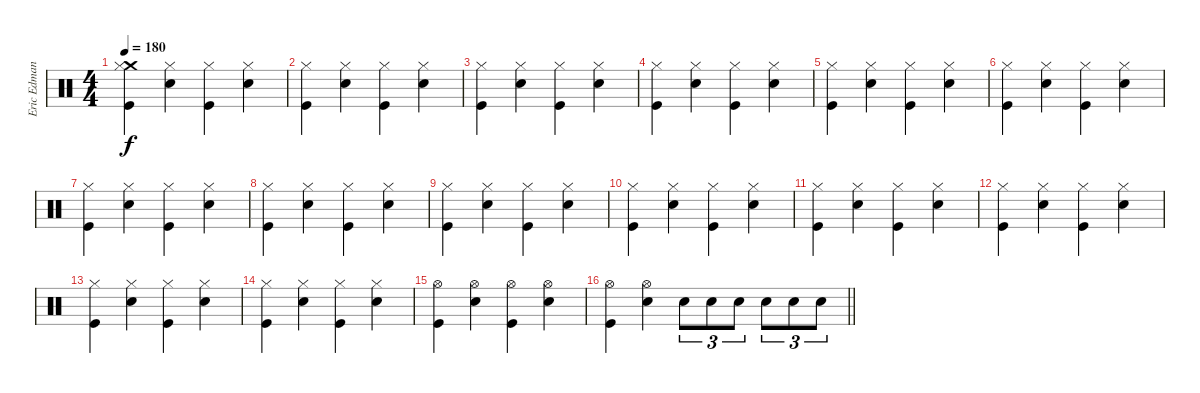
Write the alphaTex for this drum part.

\track ("Eric Edman - Drums" "Eric Edman") {instrument percussion}
\staff {score}
\articulation defaults
\ts (4 4)
\tempo 180
\clef neutral
\ks c
("Crash medium (hit)" "Hi-Hat (closed)" "Kick (hit)").4{dy f} ("Hi-Hat (closed)" "Snare (hit) 2").4 ("Hi-Hat (closed)" "Kick (hit)").4 ("Hi-Hat (closed)" "Snare (hit) 2").4 |
("Hi-Hat (closed)" "Kick (hit)").4 ("Hi-Hat (closed)" "Snare (hit) 2").4 ("Hi-Hat (closed)" "Kick (hit)").4 ("Hi-Hat (closed)" "Snare (hit) 2").4 |
("Hi-Hat (closed)" "Kick (hit)").4 ("Hi-Hat (closed)" "Snare (hit) 2").4 ("Hi-Hat (closed)" "Kick (hit)").4 ("Hi-Hat (closed)" "Snare (hit) 2").4 |
("Hi-Hat (closed)" "Kick (hit)").4 ("Hi-Hat (closed)" "Snare (hit) 2").4 ("Hi-Hat (closed)" "Kick (hit)").4 ("Hi-Hat (closed)" "Snare (hit) 2").4 |
("Hi-Hat (closed)" "Kick (hit)").4 ("Hi-Hat (closed)" "Snare (hit) 2").4 ("Hi-Hat (closed)" "Kick (hit)").4 ("Hi-Hat (closed)" "Snare (hit) 2").4 |
("Hi-Hat (closed)" "Kick (hit)").4 ("Hi-Hat (closed)" "Snare (hit) 2").4 ("Hi-Hat (closed)" "Kick (hit)").4 ("Hi-Hat (closed)" "Snare (hit) 2").4 |
("Hi-Hat (closed)" "Kick (hit)").4 ("Hi-Hat (closed)" "Snare (hit) 2").4 ("Hi-Hat (closed)" "Kick (hit)").4 ("Hi-Hat (closed)" "Snare (hit) 2").4 |
("Hi-Hat (closed)" "Kick (hit)").4 ("Hi-Hat (closed)" "Snare (hit) 2").4 ("Hi-Hat (closed)" "Kick (hit)").4 ("Hi-Hat (closed)" "Snare (hit) 2").4 |
("Hi-Hat (closed)" "Kick (hit)").4 ("Hi-Hat (closed)" "Snare (hit) 2").4 ("Hi-Hat (closed)" "Kick (hit)").4 ("Hi-Hat (closed)" "Snare (hit) 2").4 |
("Hi-Hat (closed)" "Kick (hit)").4 ("Hi-Hat (closed)" "Snare (hit) 2").4 ("Hi-Hat (closed)" "Kick (hit)").4 ("Hi-Hat (closed)" "Snare (hit) 2").4 |
("Hi-Hat (closed)" "Kick (hit)").4 ("Hi-Hat (closed)" "Snare (hit) 2").4 ("Hi-Hat (closed)" "Kick (hit)").4 ("Hi-Hat (closed)" "Snare (hit) 2").4 |
("Hi-Hat (closed)" "Kick (hit)").4 ("Hi-Hat (closed)" "Snare (hit) 2").4 ("Hi-Hat (closed)" "Kick (hit)").4 ("Hi-Hat (closed)" "Snare (hit) 2").4 |
("Hi-Hat (closed)" "Kick (hit)").4 ("Hi-Hat (closed)" "Snare (hit) 2").4 ("Hi-Hat (closed)" "Kick (hit)").4 ("Hi-Hat (closed)" "Snare (hit) 2").4 |
("Hi-Hat (closed)" "Kick (hit)").4 ("Hi-Hat (closed)" "Snare (hit) 2").4 ("Hi-Hat (closed)" "Kick (hit)").4 ("Hi-Hat (closed)" "Snare (hit) 2").4 |
("Hi-Hat (open)" "Kick (hit)").4 ("Hi-Hat (open)" "Snare (hit) 2").4 ("Hi-Hat (open)" "Kick (hit)").4 ("Hi-Hat (open)" "Snare (hit) 2").4 |
\barLineRight lightlight
("Hi-Hat (open)" "Kick (hit)").4 ("Hi-Hat (open)" "Snare (hit) 2").4 "Snare (hit) 2".8{tu (3 2)} "Snare (hit) 2".8{tu (3 2)} "Snare (hit) 2".8{tu (3 2)} "Snare (hit) 2".8{tu (3 2)} "Snare (hit) 2".8{tu (3 2)} "Snare (hit) 2".8{tu (3 2)}
